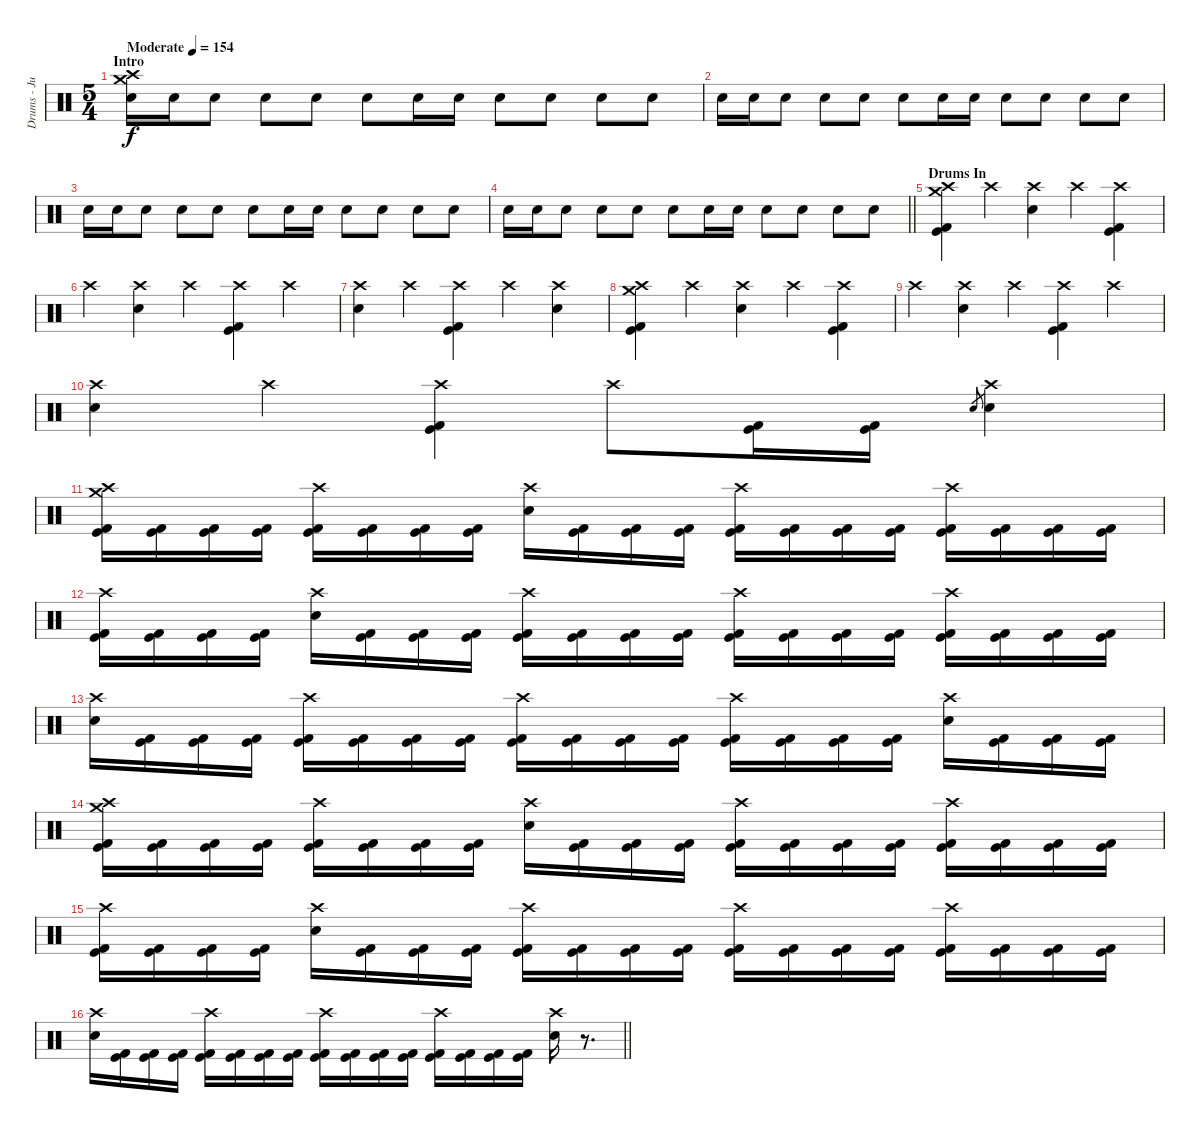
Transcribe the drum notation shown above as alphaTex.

\track ("Drums - Justin Foley" "Drums - Ju") {instrument percussion}
\staff {score}
\articulation defaults
\ts (5 4)
\section ("" "Intro")
\tempo (154 "Moderate")
\clef neutral
\ks c
("Snare (hit) 2" "Crash high (hit)" "Crash medium (hit)").16{dy f} "Snare (hit) 2".16 "Snare (hit) 2".8 "Snare (hit) 2".8 "Snare (hit) 2".8 "Snare (hit) 2".8 "Snare (hit) 2".16 "Snare (hit) 2".16 "Snare (hit) 2".8 "Snare (hit) 2".8 "Snare (hit) 2".8 "Snare (hit) 2".8 |
"Snare (hit) 2".16 "Snare (hit) 2".16 "Snare (hit) 2".8 "Snare (hit) 2".8 "Snare (hit) 2".8 "Snare (hit) 2".8 "Snare (hit) 2".16 "Snare (hit) 2".16 "Snare (hit) 2".8 "Snare (hit) 2".8 "Snare (hit) 2".8 "Snare (hit) 2".8 |
"Snare (hit) 2".16 "Snare (hit) 2".16 "Snare (hit) 2".8 "Snare (hit) 2".8 "Snare (hit) 2".8 "Snare (hit) 2".8 "Snare (hit) 2".16 "Snare (hit) 2".16 "Snare (hit) 2".8 "Snare (hit) 2".8 "Snare (hit) 2".8 "Snare (hit) 2".8 |
\barLineRight lightlight "Snare (hit) 2".16 "Snare (hit) 2".16 "Snare (hit) 2".8 "Snare (hit) 2".8 "Snare (hit) 2".8 "Snare (hit) 2".8 "Snare (hit) 2".16 "Snare (hit) 2".16 "Snare (hit) 2".8 "Snare (hit) 2".8 "Snare (hit) 2".8 "Snare (hit) 2".8
|
\section ("" "Drums In")
("Crash high (hit)" "Kick (hit) 2" "Kick (hit)" "Crash medium (hit)").4 "Crash high (hit)".4 ("Crash high (hit)" "Snare (hit) 2").4 "Crash high (hit)".4 ("Crash high (hit)" "Kick (hit) 2" "Kick (hit)").4 |
"Crash high (hit)".4 ("Crash high (hit)" "Snare (hit) 2").4 "Crash high (hit)".4 ("Crash high (hit)" "Kick (hit) 2" "Kick (hit)").4 "Crash high (hit)".4 |
("Crash high (hit)" "Snare (hit) 2").4 "Crash high (hit)".4 ("Crash high (hit)" "Kick (hit) 2" "Kick (hit)").4 "Crash high (hit)".4 ("Crash high (hit)" "Snare (hit) 2").4 |
("Crash high (hit)" "Kick (hit) 2" "Kick (hit)" "Crash medium (hit)").4 "Crash high (hit)".4 ("Crash high (hit)" "Snare (hit) 2").4 "Crash high (hit)".4 ("Crash high (hit)" "Kick (hit) 2" "Kick (hit)").4 |
"Crash high (hit)".4 ("Crash high (hit)" "Snare (hit) 2").4 "Crash high (hit)".4 ("Crash high (hit)" "Kick (hit) 2" "Kick (hit)").4 "Crash high (hit)".4 |
("Crash high (hit)" "Snare (hit) 2").4 "Crash high (hit)".4 ("Crash high (hit)" "Kick (hit) 2" "Kick (hit)").4 "Crash high (hit)".8 ("Kick (hit) 2" "Kick (hit)").16 ("Kick (hit) 2" "Kick (hit)").16 "Snare (hit) 2".8{gr} ("Crash high (hit)" "Snare (hit) 2").4 |
("Crash high (hit)" "Kick (hit) 2" "Kick (hit)" "Crash medium (hit)").16 ("Kick (hit) 2" "Kick (hit)").16 ("Kick (hit) 2" "Kick (hit)").16 ("Kick (hit) 2" "Kick (hit)").16 ("Crash high (hit)" "Kick (hit) 2" "Kick (hit)").16 ("Kick (hit) 2" "Kick (hit)").16 ("Kick (hit) 2" "Kick (hit)").16 ("Kick (hit) 2" "Kick (hit)").16 ("Crash high (hit)" "Snare (hit) 2").16 ("Kick (hit) 2" "Kick (hit)").16 ("Kick (hit) 2" "Kick (hit)").16 ("Kick (hit) 2" "Kick (hit)").16 ("Crash high (hit)" "Kick (hit) 2" "Kick (hit)").16 ("Kick (hit) 2" "Kick (hit)").16 ("Kick (hit) 2" "Kick (hit)").16 ("Kick (hit) 2" "Kick (hit)").16 ("Crash high (hit)" "Kick (hit) 2" "Kick (hit)").16 ("Kick (hit) 2" "Kick (hit)").16 ("Kick (hit) 2" "Kick (hit)").16 ("Kick (hit) 2" "Kick (hit)").16 |
("Crash high (hit)" "Kick (hit) 2" "Kick (hit)").16 ("Kick (hit) 2" "Kick (hit)").16 ("Kick (hit) 2" "Kick (hit)").16 ("Kick (hit) 2" "Kick (hit)").16 ("Crash high (hit)" "Snare (hit) 2").16 ("Kick (hit) 2" "Kick (hit)").16 ("Kick (hit) 2" "Kick (hit)").16 ("Kick (hit) 2" "Kick (hit)").16 ("Crash high (hit)" "Kick (hit) 2" "Kick (hit)").16 ("Kick (hit) 2" "Kick (hit)").16 ("Kick (hit) 2" "Kick (hit)").16 ("Kick (hit) 2" "Kick (hit)").16 ("Crash high (hit)" "Kick (hit) 2" "Kick (hit)").16 ("Kick (hit) 2" "Kick (hit)").16 ("Kick (hit) 2" "Kick (hit)").16 ("Kick (hit) 2" "Kick (hit)").16 ("Crash high (hit)" "Kick (hit) 2" "Kick (hit)").16 ("Kick (hit) 2" "Kick (hit)").16 ("Kick (hit) 2" "Kick (hit)").16 ("Kick (hit) 2" "Kick (hit)").16 |
("Crash high (hit)" "Snare (hit) 2").16 ("Kick (hit) 2" "Kick (hit)").16 ("Kick (hit) 2" "Kick (hit)").16 ("Kick (hit) 2" "Kick (hit)").16 ("Crash high (hit)" "Kick (hit) 2" "Kick (hit)").16 ("Kick (hit) 2" "Kick (hit)").16 ("Kick (hit) 2" "Kick (hit)").16 ("Kick (hit) 2" "Kick (hit)").16 ("Crash high (hit)" "Kick (hit) 2" "Kick (hit)").16 ("Kick (hit) 2" "Kick (hit)").16 ("Kick (hit) 2" "Kick (hit)").16 ("Kick (hit) 2" "Kick (hit)").16 ("Crash high (hit)" "Kick (hit) 2" "Kick (hit)").16 ("Kick (hit) 2" "Kick (hit)").16 ("Kick (hit) 2" "Kick (hit)").16 ("Kick (hit) 2" "Kick (hit)").16 ("Crash high (hit)" "Snare (hit) 2").16 ("Kick (hit) 2" "Kick (hit)").16 ("Kick (hit) 2" "Kick (hit)").16 ("Kick (hit) 2" "Kick (hit)").16 |
("Crash high (hit)" "Kick (hit) 2" "Kick (hit)" "Crash medium (hit)").16 ("Kick (hit) 2" "Kick (hit)").16 ("Kick (hit) 2" "Kick (hit)").16 ("Kick (hit) 2" "Kick (hit)").16 ("Crash high (hit)" "Kick (hit) 2" "Kick (hit)").16 ("Kick (hit) 2" "Kick (hit)").16 ("Kick (hit) 2" "Kick (hit)").16 ("Kick (hit) 2" "Kick (hit)").16 ("Crash high (hit)" "Snare (hit) 2").16 ("Kick (hit) 2" "Kick (hit)").16 ("Kick (hit) 2" "Kick (hit)").16 ("Kick (hit) 2" "Kick (hit)").16 ("Crash high (hit)" "Kick (hit) 2" "Kick (hit)").16 ("Kick (hit) 2" "Kick (hit)").16 ("Kick (hit) 2" "Kick (hit)").16 ("Kick (hit) 2" "Kick (hit)").16 ("Crash high (hit)" "Kick (hit) 2" "Kick (hit)").16 ("Kick (hit) 2" "Kick (hit)").16 ("Kick (hit) 2" "Kick (hit)").16 ("Kick (hit) 2" "Kick (hit)").16 |
("Crash high (hit)" "Kick (hit) 2" "Kick (hit)").16 ("Kick (hit) 2" "Kick (hit)").16 ("Kick (hit) 2" "Kick (hit)").16 ("Kick (hit) 2" "Kick (hit)").16 ("Crash high (hit)" "Snare (hit) 2").16 ("Kick (hit) 2" "Kick (hit)").16 ("Kick (hit) 2" "Kick (hit)").16 ("Kick (hit) 2" "Kick (hit)").16 ("Crash high (hit)" "Kick (hit) 2" "Kick (hit)").16 ("Kick (hit) 2" "Kick (hit)").16 ("Kick (hit) 2" "Kick (hit)").16 ("Kick (hit) 2" "Kick (hit)").16 ("Crash high (hit)" "Kick (hit) 2" "Kick (hit)").16 ("Kick (hit) 2" "Kick (hit)").16 ("Kick (hit) 2" "Kick (hit)").16 ("Kick (hit) 2" "Kick (hit)").16 ("Crash high (hit)" "Kick (hit) 2" "Kick (hit)").16 ("Kick (hit) 2" "Kick (hit)").16 ("Kick (hit) 2" "Kick (hit)").16 ("Kick (hit) 2" "Kick (hit)").16 |
\barLineRight lightlight
("Crash high (hit)" "Snare (hit) 2").16 ("Kick (hit) 2" "Kick (hit)").16 ("Kick (hit) 2" "Kick (hit)").16 ("Kick (hit) 2" "Kick (hit)").16 ("Crash high (hit)" "Kick (hit) 2" "Kick (hit)").16 ("Kick (hit) 2" "Kick (hit)").16 ("Kick (hit) 2" "Kick (hit)").16 ("Kick (hit) 2" "Kick (hit)").16 ("Crash high (hit)" "Kick (hit) 2" "Kick (hit)").16 ("Kick (hit) 2" "Kick (hit)").16 ("Kick (hit) 2" "Kick (hit)").16 ("Kick (hit) 2" "Kick (hit)").16 ("Crash high (hit)" "Kick (hit) 2" "Kick (hit)").16 ("Kick (hit) 2" "Kick (hit)").16 ("Kick (hit) 2" "Kick (hit)").16 ("Kick (hit) 2" "Kick (hit)").16 ("Crash high (hit)" "Snare (hit) 2").16 r.8{d}
